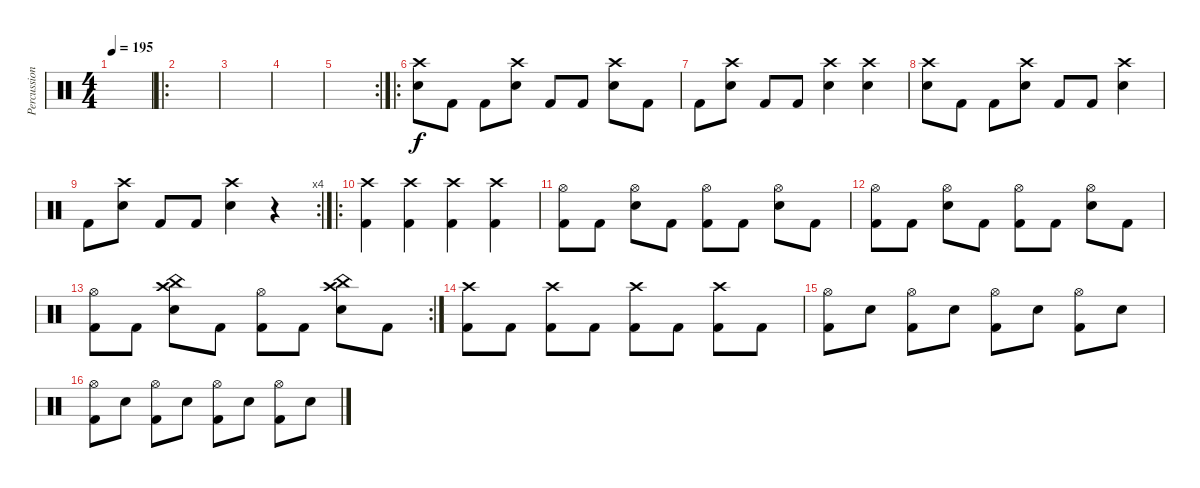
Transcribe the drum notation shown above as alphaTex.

\track ("Percussion" "Percussion") {instrument percussion}
\staff {score}
\articulation defaults
\ts (4 4)
\tempo 195
\clef neutral
\ks c
|
\ro
|
|
|
\rc 2
|
\ro
("Crash high (hit)" "Snare (hit) 2").8 "Kick (hit) 2".8 "Kick (hit) 2".8 ("Crash high (hit)" "Snare (hit) 2").8 "Kick (hit) 2".8 "Kick (hit) 2".8 ("Crash high (hit)" "Snare (hit) 2").8 "Kick (hit) 2".8 |
"Kick (hit) 2".8 ("Crash high (hit)" "Snare (hit) 2").8 "Kick (hit) 2".8 "Kick (hit) 2".8 ("Crash high (hit)" "Snare (hit) 2").4 ("Crash high (hit)" "Snare (hit) 2").4 |
("Crash high (hit)" "Snare (hit) 2").8 "Kick (hit) 2".8 "Kick (hit) 2".8 ("Crash high (hit)" "Snare (hit) 2").8 "Kick (hit) 2".8 "Kick (hit) 2".8 ("Crash high (hit)" "Snare (hit) 2").4 |
\rc 4 "Kick (hit) 2".8
("Crash high (hit)" "Snare (hit) 2").8 "Kick (hit) 2".8 "Kick (hit) 2".8 ("Crash high (hit)" "Snare (hit) 2").4 r.4 |
\ro
("Crash high (hit)" "Kick (hit) 2").4 ("Crash high (hit)" "Kick (hit) 2").4 ("Crash high (hit)" "Kick (hit) 2").4 ("Crash high (hit)" "Kick (hit) 2").4 |
\section ("" "")
("Hi-Hat (open)" "Kick (hit) 2").8 "Kick (hit) 2".8 ("Hi-Hat (open)" "Snare (hit) 2").8 "Kick (hit) 2".8 ("Hi-Hat (open)" "Kick (hit) 2").8 "Kick (hit) 2".8 ("Hi-Hat (open)" "Snare (hit) 2").8 "Kick (hit) 2".8 |
("Hi-Hat (open)" "Kick (hit) 2").8 "Kick (hit) 2".8 ("Hi-Hat (open)" "Snare (hit) 2").8 "Kick (hit) 2".8 ("Hi-Hat (open)" "Kick (hit) 2").8 "Kick (hit) 2".8 ("Hi-Hat (open)" "Snare (hit) 2").8 "Kick (hit) 2".8 |
\rc 2
("Hi-Hat (open)" "Kick (hit) 2").8 "Kick (hit) 2".8 ("Crash high (hit)" "China (hit)" "Snare (hit) 2").8 "Kick (hit) 2".8 ("Hi-Hat (open)" "Kick (hit) 2").8 "Kick (hit) 2".8 ("Crash high (hit)" "China (hit)" "Snare (hit) 2").8 "Kick (hit) 2".8 |
("Crash high (hit)" "Kick (hit) 2").8 "Kick (hit) 2".8 ("Crash high (hit)" "Kick (hit) 2").8 "Kick (hit) 2".8 ("Crash high (hit)" "Kick (hit) 2").8 "Kick (hit) 2".8 ("Crash high (hit)" "Kick (hit) 2").8 "Kick (hit) 2".8 |
("Hi-Hat (open)" "Kick (hit) 2").8 "Snare (hit) 2".8 ("Hi-Hat (open)" "Kick (hit) 2").8 "Snare (hit) 2".8 ("Hi-Hat (open)" "Kick (hit) 2").8 "Snare (hit) 2".8 ("Hi-Hat (open)" "Kick (hit) 2").8 "Snare (hit) 2".8 |
("Hi-Hat (open)" "Kick (hit) 2").8 "Snare (hit) 2".8 ("Hi-Hat (open)" "Kick (hit) 2").8 "Snare (hit) 2".8 ("Hi-Hat (open)" "Kick (hit) 2").8 "Snare (hit) 2".8 ("Hi-Hat (open)" "Kick (hit) 2").8 "Snare (hit) 2".8
